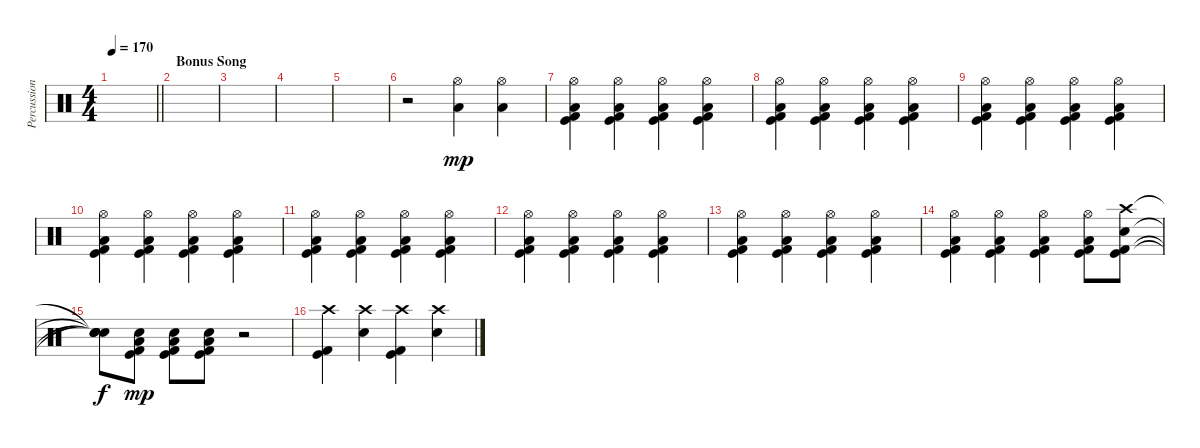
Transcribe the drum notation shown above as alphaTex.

\track ("Percussion" "Percussion") {instrument percussion}
\staff {score}
\articulation defaults
\ts (4 4)
\tempo 170
\clef neutral
\barLineRight lightlight
\ks c
|
\section ("" "Bonus Song")
|
|
|
|
r.2 ("Hi-Hat (open)" "Low Floor Tom (hit)").4{dy mp} ("Hi-Hat (open)" "Low Floor Tom (hit)").4 |
("Hi-Hat (open)" "Low Floor Tom (hit)" "Kick (hit) 2" "Kick (hit)").4 ("Hi-Hat (open)" "Low Floor Tom (hit)" "Kick (hit) 2" "Kick (hit)").4 ("Hi-Hat (open)" "Low Floor Tom (hit)" "Kick (hit) 2" "Kick (hit)").4 ("Hi-Hat (open)" "Low Floor Tom (hit)" "Kick (hit) 2" "Kick (hit)").4 |
("Hi-Hat (open)" "Low Floor Tom (hit)" "Kick (hit) 2" "Kick (hit)").4 ("Hi-Hat (open)" "Low Floor Tom (hit)" "Kick (hit) 2" "Kick (hit)").4 ("Hi-Hat (open)" "Low Floor Tom (hit)" "Kick (hit) 2" "Kick (hit)").4 ("Hi-Hat (open)" "Low Floor Tom (hit)" "Kick (hit) 2" "Kick (hit)").4 |
("Hi-Hat (open)" "Low Floor Tom (hit)" "Kick (hit) 2" "Kick (hit)").4 ("Hi-Hat (open)" "Low Floor Tom (hit)" "Kick (hit) 2" "Kick (hit)").4 ("Hi-Hat (open)" "Low Floor Tom (hit)" "Kick (hit) 2" "Kick (hit)").4 ("Hi-Hat (open)" "Low Floor Tom (hit)" "Kick (hit) 2" "Kick (hit)").4 |
("Hi-Hat (open)" "Low Floor Tom (hit)" "Kick (hit) 2" "Kick (hit)").4 ("Hi-Hat (open)" "Low Floor Tom (hit)" "Kick (hit) 2" "Kick (hit)").4 ("Hi-Hat (open)" "Low Floor Tom (hit)" "Kick (hit) 2" "Kick (hit)").4 ("Hi-Hat (open)" "Low Floor Tom (hit)" "Kick (hit) 2" "Kick (hit)").4 |
("Hi-Hat (open)" "Low Floor Tom (hit)" "Kick (hit) 2" "Kick (hit)").4 ("Hi-Hat (open)" "Low Floor Tom (hit)" "Kick (hit) 2" "Kick (hit)").4 ("Hi-Hat (open)" "Low Floor Tom (hit)" "Kick (hit) 2" "Kick (hit)").4 ("Hi-Hat (open)" "Low Floor Tom (hit)" "Kick (hit) 2" "Kick (hit)").4 |
("Hi-Hat (open)" "Low Floor Tom (hit)" "Kick (hit) 2" "Kick (hit)").4 ("Hi-Hat (open)" "Low Floor Tom (hit)" "Kick (hit) 2" "Kick (hit)").4 ("Hi-Hat (open)" "Low Floor Tom (hit)" "Kick (hit) 2" "Kick (hit)").4 ("Hi-Hat (open)" "Low Floor Tom (hit)" "Kick (hit) 2" "Kick (hit)").4 |
("Hi-Hat (open)" "Low Floor Tom (hit)" "Kick (hit) 2" "Kick (hit)").4 ("Hi-Hat (open)" "Low Floor Tom (hit)" "Kick (hit) 2" "Kick (hit)").4 ("Hi-Hat (open)" "Low Floor Tom (hit)" "Kick (hit) 2" "Kick (hit)").4 ("Hi-Hat (open)" "Low Floor Tom (hit)" "Kick (hit) 2" "Kick (hit)").4 |
("Hi-Hat (open)" "Low Floor Tom (hit)" "Kick (hit) 2" "Kick (hit)").4 ("Hi-Hat (open)" "Low Floor Tom (hit)" "Kick (hit) 2" "Kick (hit)").4 ("Hi-Hat (open)" "Low Floor Tom (hit)" "Kick (hit) 2" "Kick (hit)").4 ("Hi-Hat (open)" "Low Floor Tom (hit)" "Kick (hit) 2" "Kick (hit)").8 ("Crash high (hit)" "Electric Snare (hit)" "Kick (hit)" "Kick (hit) 2").8 |
("Snare (hit)"{t} "Snare (hit)"{t} "Snare (hit)"{t} "Snare (hit)"{t}).8{dy f} ("Snare (hit) 2" "Kick (hit)" "Low Floor Tom (hit)" "Kick (hit) 2").8{dy mp} ("Snare (hit) 2" "Kick (hit)" "Low Floor Tom (hit)" "Kick (hit) 2").8 ("Snare (hit) 2" "Kick (hit)" "Low Floor Tom (hit)" "Kick (hit) 2").8 r.2 |
("Crash high (hit)" "Kick (hit) 2" "Kick (hit)").4 ("Crash high (hit)" "Electric Snare (hit)").4 ("Crash high (hit)" "Kick (hit) 2" "Kick (hit)").4 ("Crash high (hit)" "Electric Snare (hit)").4
